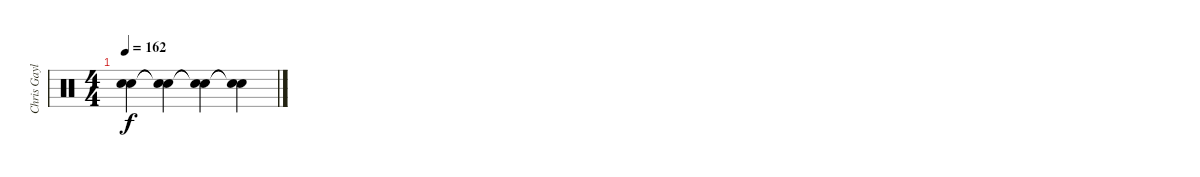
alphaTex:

\track ("Chris Gaylor" "Chris Gayl") {instrument percussion}
\staff {score}
\articulation defaults
\ts (4 4)
\tempo 162
\clef neutral
\ks c
("Snare (hit)"{t} "Snare (hit)"{t}).4{dy f} ("Snare (hit)"{t} "Snare (hit)"{t}).4 ("Snare (hit)"{t} "Snare (hit)"{t}).4 ("Snare (hit)"{t} "Snare (hit)"{t}).4
